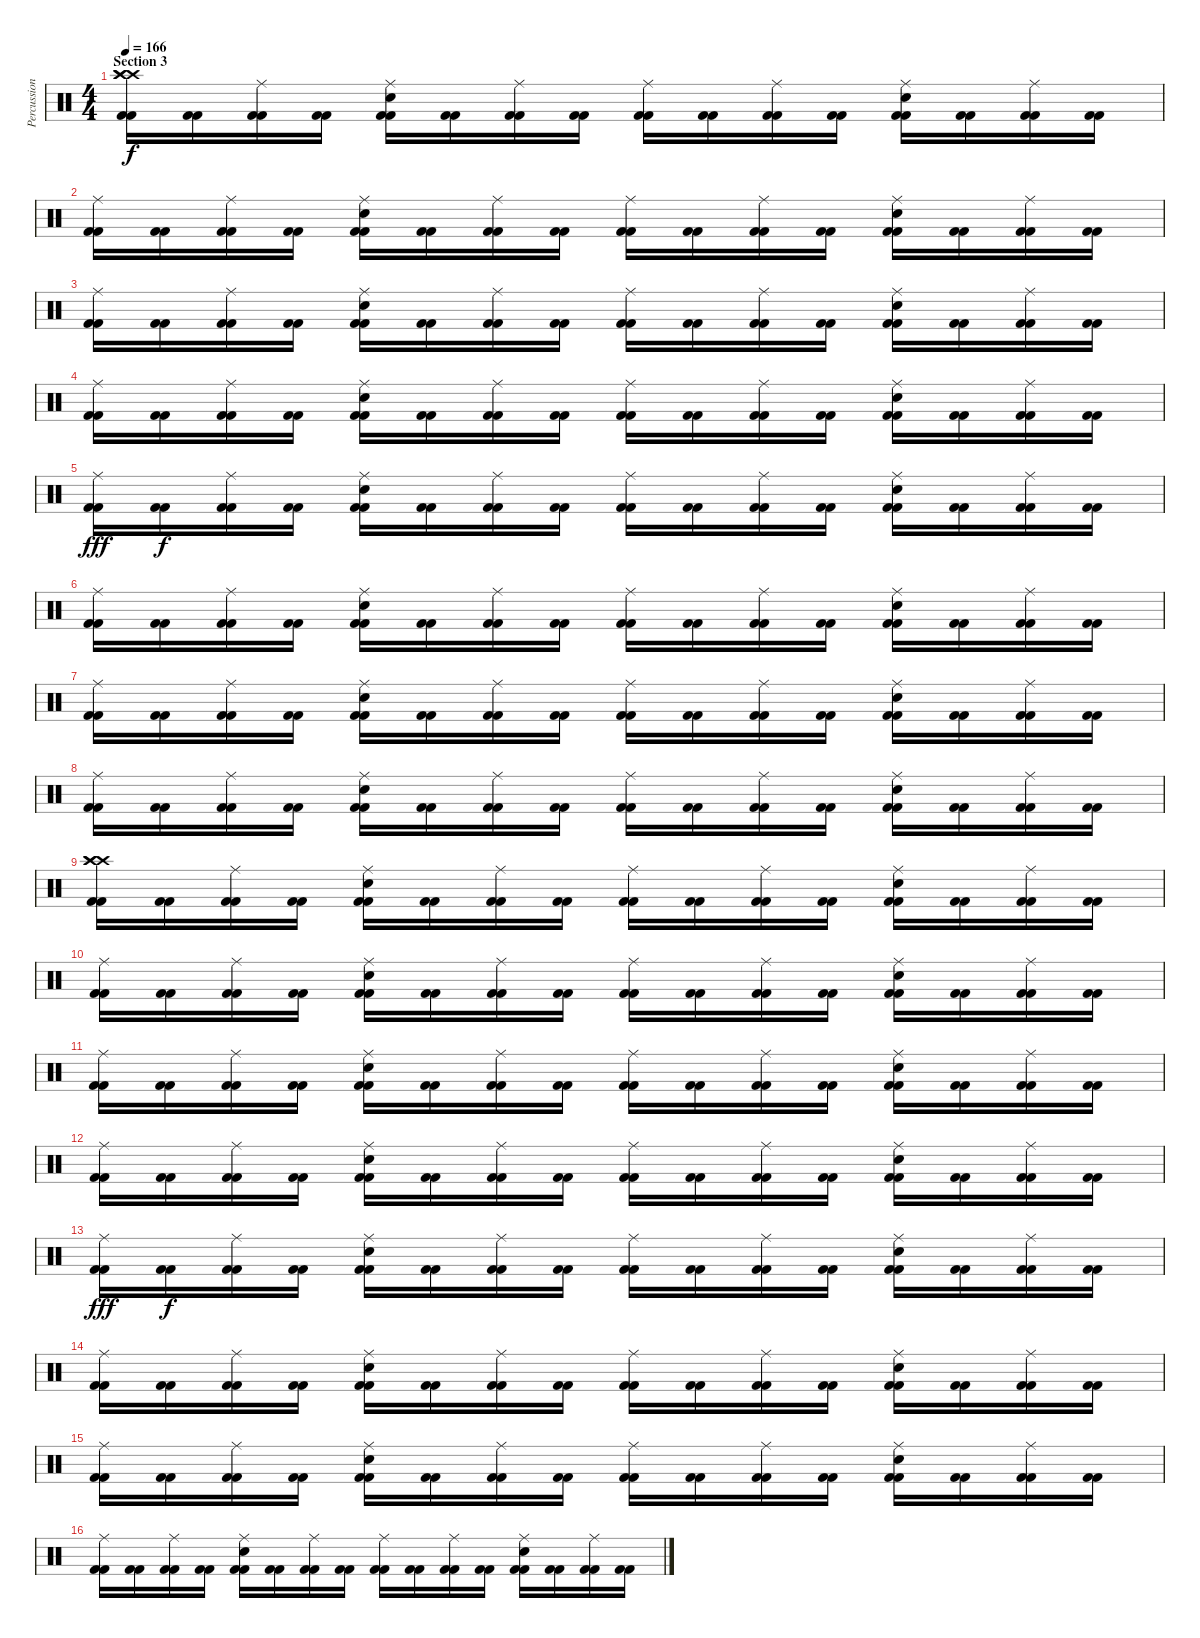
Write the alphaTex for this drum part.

\track ("Percussion" "Percussion") {instrument percussion}
\staff {score}
\articulation defaults
\ts (4 4)
\section ("" "Section 3")
\tempo 166
\clef neutral
\ks c
("Crash high (hit)" "Crash high (hit)" "Crash high (hit)" "Kick (hit) 2" "Kick (hit) 2").16{dy f} ("Kick (hit) 2" "Kick (hit) 2").16 ("Ride (middle)" "Kick (hit) 2" "Kick (hit) 2").16 ("Kick (hit) 2" "Kick (hit) 2").16 ("Ride (middle)" "Electric Snare (hit)" "Kick (hit) 2" "Kick (hit) 2").16 ("Kick (hit) 2" "Kick (hit) 2").16 ("Ride (middle)" "Kick (hit) 2" "Kick (hit) 2").16 ("Kick (hit) 2" "Kick (hit) 2").16 ("Ride (middle)" "Kick (hit) 2" "Kick (hit) 2").16 ("Kick (hit) 2" "Kick (hit) 2").16 ("Ride (middle)" "Kick (hit) 2" "Kick (hit) 2").16 ("Kick (hit) 2" "Kick (hit) 2").16 ("Ride (middle)" "Electric Snare (hit)" "Kick (hit) 2" "Kick (hit) 2").16 ("Kick (hit) 2" "Kick (hit) 2").16 ("Ride (middle)" "Kick (hit) 2" "Kick (hit) 2").16 ("Kick (hit) 2" "Kick (hit) 2").16 |
("Ride (middle)" "Kick (hit) 2" "Kick (hit) 2").16 ("Kick (hit) 2" "Kick (hit) 2").16 ("Ride (middle)" "Kick (hit) 2" "Kick (hit) 2").16 ("Kick (hit) 2" "Kick (hit) 2").16 ("Ride (middle)" "Electric Snare (hit)" "Kick (hit) 2" "Kick (hit) 2").16 ("Kick (hit) 2" "Kick (hit) 2").16 ("Ride (middle)" "Kick (hit) 2" "Kick (hit) 2").16 ("Kick (hit) 2" "Kick (hit) 2").16 ("Ride (middle)" "Kick (hit) 2" "Kick (hit) 2").16 ("Kick (hit) 2" "Kick (hit) 2").16 ("Ride (middle)" "Kick (hit) 2" "Kick (hit) 2").16 ("Kick (hit) 2" "Kick (hit) 2").16 ("Ride (middle)" "Electric Snare (hit)" "Kick (hit) 2" "Kick (hit) 2").16 ("Kick (hit) 2" "Kick (hit) 2").16 ("Ride (middle)" "Kick (hit) 2" "Kick (hit) 2").16 ("Kick (hit) 2" "Kick (hit) 2").16 |
("Ride (middle)" "Kick (hit) 2" "Kick (hit) 2").16 ("Kick (hit) 2" "Kick (hit) 2").16 ("Ride (middle)" "Kick (hit) 2" "Kick (hit) 2").16 ("Kick (hit) 2" "Kick (hit) 2").16 ("Ride (middle)" "Electric Snare (hit)" "Kick (hit) 2" "Kick (hit) 2").16 ("Kick (hit) 2" "Kick (hit) 2").16 ("Ride (middle)" "Kick (hit) 2" "Kick (hit) 2").16 ("Kick (hit) 2" "Kick (hit) 2").16 ("Ride (middle)" "Kick (hit) 2" "Kick (hit) 2").16 ("Kick (hit) 2" "Kick (hit) 2").16 ("Ride (middle)" "Kick (hit) 2" "Kick (hit) 2").16 ("Kick (hit) 2" "Kick (hit) 2").16 ("Ride (middle)" "Electric Snare (hit)" "Kick (hit) 2" "Kick (hit) 2").16 ("Kick (hit) 2" "Kick (hit) 2").16 ("Ride (middle)" "Kick (hit) 2" "Kick (hit) 2").16 ("Kick (hit) 2" "Kick (hit) 2").16 |
("Ride (middle)" "Kick (hit) 2" "Kick (hit) 2").16 ("Kick (hit) 2" "Kick (hit) 2").16 ("Ride (middle)" "Kick (hit) 2" "Kick (hit) 2").16 ("Kick (hit) 2" "Kick (hit) 2").16 ("Ride (middle)" "Electric Snare (hit)" "Kick (hit) 2" "Kick (hit) 2").16 ("Kick (hit) 2" "Kick (hit) 2").16 ("Ride (middle)" "Kick (hit) 2" "Kick (hit) 2").16 ("Kick (hit) 2" "Kick (hit) 2").16 ("Ride (middle)" "Kick (hit) 2" "Kick (hit) 2").16 ("Kick (hit) 2" "Kick (hit) 2").16 ("Ride (middle)" "Kick (hit) 2" "Kick (hit) 2").16 ("Kick (hit) 2" "Kick (hit) 2").16 ("Ride (middle)" "Electric Snare (hit)" "Kick (hit) 2" "Kick (hit) 2").16 ("Kick (hit) 2" "Kick (hit) 2").16 ("Ride (middle)" "Kick (hit) 2" "Kick (hit) 2").16 ("Kick (hit) 2" "Kick (hit) 2").16 |
("Ride (middle)" "Kick (hit) 2" "Kick (hit) 2").16{dy fff} ("Kick (hit) 2" "Kick (hit) 2").16{dy f} ("Ride (middle)" "Kick (hit) 2" "Kick (hit) 2").16 ("Kick (hit) 2" "Kick (hit) 2").16 ("Ride (middle)" "Electric Snare (hit)" "Kick (hit) 2" "Kick (hit) 2").16 ("Kick (hit) 2" "Kick (hit) 2").16 ("Ride (middle)" "Kick (hit) 2" "Kick (hit) 2").16 ("Kick (hit) 2" "Kick (hit) 2").16 ("Ride (middle)" "Kick (hit) 2" "Kick (hit) 2").16 ("Kick (hit) 2" "Kick (hit) 2").16 ("Ride (middle)" "Kick (hit) 2" "Kick (hit) 2").16 ("Kick (hit) 2" "Kick (hit) 2").16 ("Ride (middle)" "Electric Snare (hit)" "Kick (hit) 2" "Kick (hit) 2").16 ("Kick (hit) 2" "Kick (hit) 2").16 ("Ride (middle)" "Kick (hit) 2" "Kick (hit) 2").16 ("Kick (hit) 2" "Kick (hit) 2").16 |
("Ride (middle)" "Kick (hit) 2" "Kick (hit) 2").16 ("Kick (hit) 2" "Kick (hit) 2").16 ("Ride (middle)" "Kick (hit) 2" "Kick (hit) 2").16 ("Kick (hit) 2" "Kick (hit) 2").16 ("Ride (middle)" "Electric Snare (hit)" "Kick (hit) 2" "Kick (hit) 2").16 ("Kick (hit) 2" "Kick (hit) 2").16 ("Ride (middle)" "Kick (hit) 2" "Kick (hit) 2").16 ("Kick (hit) 2" "Kick (hit) 2").16 ("Ride (middle)" "Kick (hit) 2" "Kick (hit) 2").16 ("Kick (hit) 2" "Kick (hit) 2").16 ("Ride (middle)" "Kick (hit) 2" "Kick (hit) 2").16 ("Kick (hit) 2" "Kick (hit) 2").16 ("Ride (middle)" "Electric Snare (hit)" "Kick (hit) 2" "Kick (hit) 2").16 ("Kick (hit) 2" "Kick (hit) 2").16 ("Ride (middle)" "Kick (hit) 2" "Kick (hit) 2").16 ("Kick (hit) 2" "Kick (hit) 2").16 |
("Ride (middle)" "Kick (hit) 2" "Kick (hit) 2").16 ("Kick (hit) 2" "Kick (hit) 2").16 ("Ride (middle)" "Kick (hit) 2" "Kick (hit) 2").16 ("Kick (hit) 2" "Kick (hit) 2").16 ("Ride (middle)" "Electric Snare (hit)" "Kick (hit) 2" "Kick (hit) 2").16 ("Kick (hit) 2" "Kick (hit) 2").16 ("Ride (middle)" "Kick (hit) 2" "Kick (hit) 2").16 ("Kick (hit) 2" "Kick (hit) 2").16 ("Ride (middle)" "Kick (hit) 2" "Kick (hit) 2").16 ("Kick (hit) 2" "Kick (hit) 2").16 ("Ride (middle)" "Kick (hit) 2" "Kick (hit) 2").16 ("Kick (hit) 2" "Kick (hit) 2").16 ("Ride (middle)" "Electric Snare (hit)" "Kick (hit) 2" "Kick (hit) 2").16 ("Kick (hit) 2" "Kick (hit) 2").16 ("Ride (middle)" "Kick (hit) 2" "Kick (hit) 2").16 ("Kick (hit) 2" "Kick (hit) 2").16 |
("Ride (middle)" "Kick (hit) 2" "Kick (hit) 2").16 ("Kick (hit) 2" "Kick (hit) 2").16 ("Ride (middle)" "Kick (hit) 2" "Kick (hit) 2").16 ("Kick (hit) 2" "Kick (hit) 2").16 ("Ride (middle)" "Electric Snare (hit)" "Kick (hit) 2" "Kick (hit) 2").16 ("Kick (hit) 2" "Kick (hit) 2").16 ("Ride (middle)" "Kick (hit) 2" "Kick (hit) 2").16 ("Kick (hit) 2" "Kick (hit) 2").16 ("Ride (middle)" "Kick (hit) 2" "Kick (hit) 2").16 ("Kick (hit) 2" "Kick (hit) 2").16 ("Ride (middle)" "Kick (hit) 2" "Kick (hit) 2").16 ("Kick (hit) 2" "Kick (hit) 2").16 ("Ride (middle)" "Electric Snare (hit)" "Kick (hit) 2" "Kick (hit) 2").16 ("Kick (hit) 2" "Kick (hit) 2").16 ("Ride (middle)" "Kick (hit) 2" "Kick (hit) 2").16 ("Kick (hit) 2" "Kick (hit) 2").16 |
("Crash high (hit)" "Crash high (hit)" "Crash high (hit)" "Kick (hit) 2" "Kick (hit) 2").16 ("Kick (hit) 2" "Kick (hit) 2").16 ("Ride (middle)" "Kick (hit) 2" "Kick (hit) 2").16 ("Kick (hit) 2" "Kick (hit) 2").16 ("Ride (middle)" "Electric Snare (hit)" "Kick (hit) 2" "Kick (hit) 2").16 ("Kick (hit) 2" "Kick (hit) 2").16 ("Ride (middle)" "Kick (hit) 2" "Kick (hit) 2").16 ("Kick (hit) 2" "Kick (hit) 2").16 ("Ride (middle)" "Kick (hit) 2" "Kick (hit) 2").16 ("Kick (hit) 2" "Kick (hit) 2").16 ("Ride (middle)" "Kick (hit) 2" "Kick (hit) 2").16 ("Kick (hit) 2" "Kick (hit) 2").16 ("Ride (middle)" "Electric Snare (hit)" "Kick (hit) 2" "Kick (hit) 2").16 ("Kick (hit) 2" "Kick (hit) 2").16 ("Ride (middle)" "Kick (hit) 2" "Kick (hit) 2").16 ("Kick (hit) 2" "Kick (hit) 2").16 |
("Ride (middle)" "Kick (hit) 2" "Kick (hit) 2").16 ("Kick (hit) 2" "Kick (hit) 2").16 ("Ride (middle)" "Kick (hit) 2" "Kick (hit) 2").16 ("Kick (hit) 2" "Kick (hit) 2").16 ("Ride (middle)" "Electric Snare (hit)" "Kick (hit) 2" "Kick (hit) 2").16 ("Kick (hit) 2" "Kick (hit) 2").16 ("Ride (middle)" "Kick (hit) 2" "Kick (hit) 2").16 ("Kick (hit) 2" "Kick (hit) 2").16 ("Ride (middle)" "Kick (hit) 2" "Kick (hit) 2").16 ("Kick (hit) 2" "Kick (hit) 2").16 ("Ride (middle)" "Kick (hit) 2" "Kick (hit) 2").16 ("Kick (hit) 2" "Kick (hit) 2").16 ("Ride (middle)" "Electric Snare (hit)" "Kick (hit) 2" "Kick (hit) 2").16 ("Kick (hit) 2" "Kick (hit) 2").16 ("Ride (middle)" "Kick (hit) 2" "Kick (hit) 2").16 ("Kick (hit) 2" "Kick (hit) 2").16 |
("Ride (middle)" "Kick (hit) 2" "Kick (hit) 2").16 ("Kick (hit) 2" "Kick (hit) 2").16 ("Ride (middle)" "Kick (hit) 2" "Kick (hit) 2").16 ("Kick (hit) 2" "Kick (hit) 2").16 ("Ride (middle)" "Electric Snare (hit)" "Kick (hit) 2" "Kick (hit) 2").16 ("Kick (hit) 2" "Kick (hit) 2").16 ("Ride (middle)" "Kick (hit) 2" "Kick (hit) 2").16 ("Kick (hit) 2" "Kick (hit) 2").16 ("Ride (middle)" "Kick (hit) 2" "Kick (hit) 2").16 ("Kick (hit) 2" "Kick (hit) 2").16 ("Ride (middle)" "Kick (hit) 2" "Kick (hit) 2").16 ("Kick (hit) 2" "Kick (hit) 2").16 ("Ride (middle)" "Electric Snare (hit)" "Kick (hit) 2" "Kick (hit) 2").16 ("Kick (hit) 2" "Kick (hit) 2").16 ("Ride (middle)" "Kick (hit) 2" "Kick (hit) 2").16 ("Kick (hit) 2" "Kick (hit) 2").16 |
("Ride (middle)" "Kick (hit) 2" "Kick (hit) 2").16 ("Kick (hit) 2" "Kick (hit) 2").16 ("Ride (middle)" "Kick (hit) 2" "Kick (hit) 2").16 ("Kick (hit) 2" "Kick (hit) 2").16 ("Ride (middle)" "Electric Snare (hit)" "Kick (hit) 2" "Kick (hit) 2").16 ("Kick (hit) 2" "Kick (hit) 2").16 ("Ride (middle)" "Kick (hit) 2" "Kick (hit) 2").16 ("Kick (hit) 2" "Kick (hit) 2").16 ("Ride (middle)" "Kick (hit) 2" "Kick (hit) 2").16 ("Kick (hit) 2" "Kick (hit) 2").16 ("Ride (middle)" "Kick (hit) 2" "Kick (hit) 2").16 ("Kick (hit) 2" "Kick (hit) 2").16 ("Ride (middle)" "Electric Snare (hit)" "Kick (hit) 2" "Kick (hit) 2").16 ("Kick (hit) 2" "Kick (hit) 2").16 ("Ride (middle)" "Kick (hit) 2" "Kick (hit) 2").16 ("Kick (hit) 2" "Kick (hit) 2").16 |
("Ride (middle)" "Kick (hit) 2" "Kick (hit) 2").16{dy fff} ("Kick (hit) 2" "Kick (hit) 2").16{dy f} ("Ride (middle)" "Kick (hit) 2" "Kick (hit) 2").16 ("Kick (hit) 2" "Kick (hit) 2").16 ("Ride (middle)" "Electric Snare (hit)" "Kick (hit) 2" "Kick (hit) 2").16 ("Kick (hit) 2" "Kick (hit) 2").16 ("Ride (middle)" "Kick (hit) 2" "Kick (hit) 2").16 ("Kick (hit) 2" "Kick (hit) 2").16 ("Ride (middle)" "Kick (hit) 2" "Kick (hit) 2").16 ("Kick (hit) 2" "Kick (hit) 2").16 ("Ride (middle)" "Kick (hit) 2" "Kick (hit) 2").16 ("Kick (hit) 2" "Kick (hit) 2").16 ("Ride (middle)" "Electric Snare (hit)" "Kick (hit) 2" "Kick (hit) 2").16 ("Kick (hit) 2" "Kick (hit) 2").16 ("Ride (middle)" "Kick (hit) 2" "Kick (hit) 2").16 ("Kick (hit) 2" "Kick (hit) 2").16 |
("Ride (middle)" "Kick (hit) 2" "Kick (hit) 2").16 ("Kick (hit) 2" "Kick (hit) 2").16 ("Ride (middle)" "Kick (hit) 2" "Kick (hit) 2").16 ("Kick (hit) 2" "Kick (hit) 2").16 ("Ride (middle)" "Electric Snare (hit)" "Kick (hit) 2" "Kick (hit) 2").16 ("Kick (hit) 2" "Kick (hit) 2").16 ("Ride (middle)" "Kick (hit) 2" "Kick (hit) 2").16 ("Kick (hit) 2" "Kick (hit) 2").16 ("Ride (middle)" "Kick (hit) 2" "Kick (hit) 2").16 ("Kick (hit) 2" "Kick (hit) 2").16 ("Ride (middle)" "Kick (hit) 2" "Kick (hit) 2").16 ("Kick (hit) 2" "Kick (hit) 2").16 ("Ride (middle)" "Electric Snare (hit)" "Kick (hit) 2" "Kick (hit) 2").16 ("Kick (hit) 2" "Kick (hit) 2").16 ("Ride (middle)" "Kick (hit) 2" "Kick (hit) 2").16 ("Kick (hit) 2" "Kick (hit) 2").16 |
("Ride (middle)" "Kick (hit) 2" "Kick (hit) 2").16 ("Kick (hit) 2" "Kick (hit) 2").16 ("Ride (middle)" "Kick (hit) 2" "Kick (hit) 2").16 ("Kick (hit) 2" "Kick (hit) 2").16 ("Ride (middle)" "Electric Snare (hit)" "Kick (hit) 2" "Kick (hit) 2").16 ("Kick (hit) 2" "Kick (hit) 2").16 ("Ride (middle)" "Kick (hit) 2" "Kick (hit) 2").16 ("Kick (hit) 2" "Kick (hit) 2").16 ("Ride (middle)" "Kick (hit) 2" "Kick (hit) 2").16 ("Kick (hit) 2" "Kick (hit) 2").16 ("Ride (middle)" "Kick (hit) 2" "Kick (hit) 2").16 ("Kick (hit) 2" "Kick (hit) 2").16 ("Ride (middle)" "Electric Snare (hit)" "Kick (hit) 2" "Kick (hit) 2").16 ("Kick (hit) 2" "Kick (hit) 2").16 ("Ride (middle)" "Kick (hit) 2" "Kick (hit) 2").16 ("Kick (hit) 2" "Kick (hit) 2").16 |
("Ride (middle)" "Kick (hit) 2" "Kick (hit) 2").16 ("Kick (hit) 2" "Kick (hit) 2").16 ("Ride (middle)" "Kick (hit) 2" "Kick (hit) 2").16 ("Kick (hit) 2" "Kick (hit) 2").16 ("Ride (middle)" "Electric Snare (hit)" "Kick (hit) 2" "Kick (hit) 2").16 ("Kick (hit) 2" "Kick (hit) 2").16 ("Ride (middle)" "Kick (hit) 2" "Kick (hit) 2").16 ("Kick (hit) 2" "Kick (hit) 2").16 ("Ride (middle)" "Kick (hit) 2" "Kick (hit) 2").16 ("Kick (hit) 2" "Kick (hit) 2").16 ("Ride (middle)" "Kick (hit) 2" "Kick (hit) 2").16 ("Kick (hit) 2" "Kick (hit) 2").16 ("Ride (middle)" "Electric Snare (hit)" "Kick (hit) 2" "Kick (hit) 2").16 ("Kick (hit) 2" "Kick (hit) 2").16 ("Ride (middle)" "Kick (hit) 2" "Kick (hit) 2").16 ("Kick (hit) 2" "Kick (hit) 2").16
